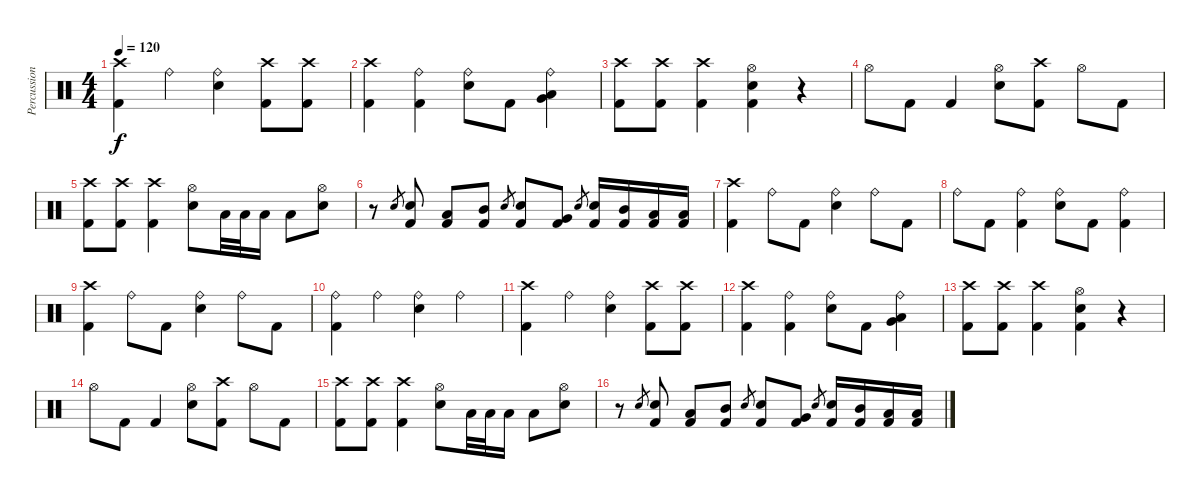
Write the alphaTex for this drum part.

\track ("Percussion" "Percussion") {instrument percussion}
\staff {score}
\articulation defaults
\ts (4 4)
\tempo 120
\clef neutral
\ks c
("Crash high (hit)" "Kick (hit) 2").4{dy f} "Ride (bell)".4 ("Ride (bell)" "Electric Snare (hit)").4 ("Crash high (hit)" "Kick (hit) 2").8 ("Crash high (hit)" "Kick (hit) 2").8 |
("Crash high (hit)" "Kick (hit) 2").4 ("Ride (bell)" "Kick (hit) 2").4 ("Ride (bell)" "Electric Snare (hit)").8 "Kick (hit) 2".8 ("Ride (bell)" "Low Tom (hit)" "Very Low Tom (hit)").4 |
("Crash high (hit)" "Kick (hit) 2").8 ("Crash high (hit)" "Kick (hit) 2").8 ("Crash high (hit)" "Kick (hit) 2").4 ("Hi-Hat (open)" "Electric Snare (hit)" "Kick (hit) 2").4 r.4 |
"Hi-Hat (open)".8 "Kick (hit) 2".8 "Kick (hit) 2".4 ("Hi-Hat (open)" "Electric Snare (hit)").8 ("Crash high (hit)" "Kick (hit) 2").8 "Hi-Hat (open)".8 "Kick (hit) 2".8 |
("Crash high (hit)" "Kick (hit) 2").8 ("Crash high (hit)" "Kick (hit) 2").8 ("Crash high (hit)" "Kick (hit) 2").4 ("Hi-Hat (open)" "Electric Snare (hit)").8 "Low Tom (hit)".32 "Low Tom (hit)".32 "Low Tom (hit)".16 "Low Tom (hit)".8 ("Hi-Hat (open)" "Electric Snare (hit)").8 |
r.8 "Electric Snare (hit)".8{gr} ("Kick (hit) 2" "Electric Snare (hit)").8 ("Kick (hit) 2" "Low Tom (hit)").8 ("Kick (hit) 2" "Mid Tom (hit)").8 "Electric Snare (hit)".8{gr} ("Kick (hit) 2" "Electric Snare (hit)").8 ("Kick (hit) 2" "Very Low Tom (hit)").8 "Electric Snare (hit)".8{gr} ("Kick (hit) 2" "Electric Snare (hit)").16 ("Kick (hit) 2" "Mid Tom (hit)").16 ("Kick (hit) 2" "Low Tom (hit)").16 ("Kick (hit) 2" "Low Tom (hit)").16 |
("Crash high (hit)" "Kick (hit) 2").4 "Ride (bell)".8 "Kick (hit) 2".8 ("Ride (bell)" "Electric Snare (hit)").4 "Ride (bell)".8 "Kick (hit) 2".8 |
"Ride (bell)".8 "Kick (hit) 2".8 ("Ride (bell)" "Kick (hit) 2").4 ("Ride (bell)" "Electric Snare (hit)").8 "Kick (hit) 2".8 ("Ride (bell)" "Kick (hit) 2").4 |
("Crash high (hit)" "Kick (hit) 2").4 "Ride (bell)".8 "Kick (hit) 2".8 ("Ride (bell)" "Electric Snare (hit)").4 "Ride (bell)".8 "Kick (hit) 2".8 |
("Ride (bell)" "Kick (hit) 2").4 "Ride (bell)".4 ("Ride (bell)" "Electric Snare (hit)").4 "Ride (bell)".4 |
("Crash high (hit)" "Kick (hit) 2").4 "Ride (bell)".4 ("Ride (bell)" "Electric Snare (hit)").4 ("Crash high (hit)" "Kick (hit) 2").8 ("Crash high (hit)" "Kick (hit) 2").8 |
("Crash high (hit)" "Kick (hit) 2").4 ("Ride (bell)" "Kick (hit) 2").4 ("Ride (bell)" "Electric Snare (hit)").8 "Kick (hit) 2".8 ("Ride (bell)" "Low Tom (hit)" "Very Low Tom (hit)").4 |
("Crash high (hit)" "Kick (hit) 2").8 ("Crash high (hit)" "Kick (hit) 2").8 ("Crash high (hit)" "Kick (hit) 2").4 ("Hi-Hat (open)" "Electric Snare (hit)" "Kick (hit) 2").4 r.4 |
"Hi-Hat (open)".8 "Kick (hit) 2".8 "Kick (hit) 2".4 ("Hi-Hat (open)" "Electric Snare (hit)").8 ("Crash high (hit)" "Kick (hit) 2").8 "Hi-Hat (open)".8 "Kick (hit) 2".8 |
("Crash high (hit)" "Kick (hit) 2").8 ("Crash high (hit)" "Kick (hit) 2").8 ("Crash high (hit)" "Kick (hit) 2").4 ("Hi-Hat (open)" "Electric Snare (hit)").8 "Low Tom (hit)".32 "Low Tom (hit)".32 "Low Tom (hit)".16 "Low Tom (hit)".8 ("Hi-Hat (open)" "Electric Snare (hit)").8 |
r.8 "Electric Snare (hit)".8{gr} ("Kick (hit) 2" "Electric Snare (hit)").8 ("Kick (hit) 2" "Low Tom (hit)").8 ("Kick (hit) 2" "Mid Tom (hit)").8 "Electric Snare (hit)".8{gr} ("Kick (hit) 2" "Electric Snare (hit)").8 ("Kick (hit) 2" "Very Low Tom (hit)").8 "Electric Snare (hit)".8{gr} ("Kick (hit) 2" "Electric Snare (hit)").16 ("Kick (hit) 2" "Mid Tom (hit)").16 ("Kick (hit) 2" "Low Tom (hit)").16 ("Kick (hit) 2" "Low Tom (hit)").16
